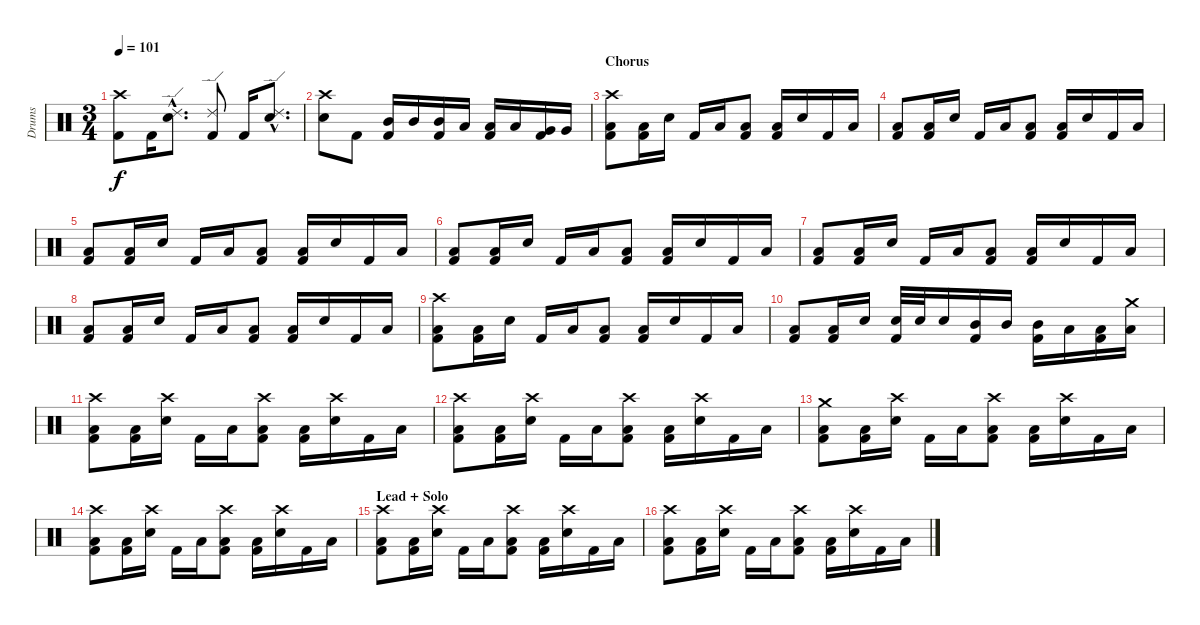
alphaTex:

\track ("Drums" "Drums") {instrument percussion}
\staff {score}
\articulation defaults
\ts (3 4)
\tempo 101
\clef neutral
\ks c
("Crash high (hit)" "Kick (hit) 2").8{dy f} "Kick (hit) 2".16 ("Electric Snare (hit)"{hac} "Ride (edge) 2"{hac}).8{d} ("Ride (edge) 2" "Kick (hit) 2").8 "Kick (hit) 2".16 ("Electric Snare (hit)"{hac} "Ride (edge) 2"{hac}).8{d} |
("Crash high (hit)" "Electric Snare (hit)").8 "Kick (hit) 2".8 ("Mid Tom (hit)" "Kick (hit) 2").16 "Mid Tom (hit)".16 ("Mid Tom (hit)" "Kick (hit) 2").16 "Low Tom (hit)".16 ("Low Tom (hit)" "Kick (hit) 2").16 "Low Tom (hit)".16 ("Very Low Tom (hit)" "Kick (hit) 2").16 "Very Low Tom (hit)".16 |
\section ("" "Chorus")
("Crash high (hit)" "Low Tom (hit)" "Kick (hit) 2").8 ("Low Tom (hit)" "Kick (hit) 2").16 "Electric Snare (hit)".16 "Kick (hit) 2".16 "Low Tom (hit)".16 ("Low Tom (hit)" "Kick (hit) 2").8 ("Low Tom (hit)" "Kick (hit) 2").16 "Electric Snare (hit)".16 "Kick (hit) 2".16 "Low Tom (hit)".16 |
("Low Tom (hit)" "Kick (hit) 2").8 ("Low Tom (hit)" "Kick (hit) 2").16 "Electric Snare (hit)".16 "Kick (hit) 2".16 "Low Tom (hit)".16 ("Low Tom (hit)" "Kick (hit) 2").8 ("Low Tom (hit)" "Kick (hit) 2").16 "Electric Snare (hit)".16 "Kick (hit) 2".16 "Low Tom (hit)".16 |
("Low Tom (hit)" "Kick (hit) 2").8 ("Low Tom (hit)" "Kick (hit) 2").16 "Electric Snare (hit)".16 "Kick (hit) 2".16 "Low Tom (hit)".16 ("Low Tom (hit)" "Kick (hit) 2").8 ("Low Tom (hit)" "Kick (hit) 2").16 "Electric Snare (hit)".16 "Kick (hit) 2".16 "Low Tom (hit)".16 |
("Low Tom (hit)" "Kick (hit) 2").8 ("Low Tom (hit)" "Kick (hit) 2").16 "Electric Snare (hit)".16 "Kick (hit) 2".16 "Low Tom (hit)".16 ("Low Tom (hit)" "Kick (hit) 2").8 ("Low Tom (hit)" "Kick (hit) 2").16 "Electric Snare (hit)".16 "Kick (hit) 2".16 "Low Tom (hit)".16 |
("Low Tom (hit)" "Kick (hit) 2").8 ("Low Tom (hit)" "Kick (hit) 2").16 "Electric Snare (hit)".16 "Kick (hit) 2".16 "Low Tom (hit)".16 ("Low Tom (hit)" "Kick (hit) 2").8 ("Low Tom (hit)" "Kick (hit) 2").16 "Electric Snare (hit)".16 "Kick (hit) 2".16 "Low Tom (hit)".16 |
("Low Tom (hit)" "Kick (hit) 2").8 ("Low Tom (hit)" "Kick (hit) 2").16 "Electric Snare (hit)".16 "Kick (hit) 2".16 "Low Tom (hit)".16 ("Low Tom (hit)" "Kick (hit) 2").8 ("Low Tom (hit)" "Kick (hit) 2").16 "Electric Snare (hit)".16 "Kick (hit) 2".16 "Low Tom (hit)".16 |
("Crash high (hit)" "Low Tom (hit)" "Kick (hit) 2").8 ("Low Tom (hit)" "Kick (hit) 2").16 "Electric Snare (hit)".16 "Kick (hit) 2".16 "Low Tom (hit)".16 ("Low Tom (hit)" "Kick (hit) 2").8 ("Low Tom (hit)" "Kick (hit) 2").16 "Electric Snare (hit)".16 "Kick (hit) 2".16 "Low Tom (hit)".16 |
("Low Tom (hit)" "Kick (hit) 2").8 ("Low Tom (hit)" "Kick (hit) 2").16 "Electric Snare (hit)".16 ("Electric Snare (hit)" "Kick (hit) 2").32 "Electric Snare (hit)".32 "Electric Snare (hit)".16 ("Mid Tom (hit)" "Kick (hit) 2").16 "Mid Tom (hit)".16 ("Mid Tom (hit)" "Kick (hit) 2").16 "Low Tom (hit)".16 ("Low Tom (hit)" "Kick (hit) 2").16 ("Crash medium (hit)" "Low Tom (hit)").16 |
("Crash high (hit)" "Low Tom (hit)" "Kick (hit) 2").8 ("Low Tom (hit)" "Kick (hit) 2").16 ("Crash high (hit)" "Electric Snare (hit)").16 "Kick (hit) 2".16 "Low Tom (hit)".16 ("Crash high (hit)" "Low Tom (hit)" "Kick (hit) 2").8 ("Low Tom (hit)" "Kick (hit) 2").16 ("Crash high (hit)" "Electric Snare (hit)").16 "Kick (hit) 2".16 "Low Tom (hit)".16 |
("Crash high (hit)" "Low Tom (hit)" "Kick (hit) 2").8 ("Low Tom (hit)" "Kick (hit) 2").16 ("Crash high (hit)" "Electric Snare (hit)").16 "Kick (hit) 2".16 "Low Tom (hit)".16 ("Crash high (hit)" "Low Tom (hit)" "Kick (hit) 2").8 ("Low Tom (hit)" "Kick (hit) 2").16 ("Crash high (hit)" "Electric Snare (hit)").16 "Kick (hit) 2".16 "Low Tom (hit)".16 |
("Crash medium (hit)" "Low Tom (hit)" "Kick (hit) 2").8 ("Low Tom (hit)" "Kick (hit) 2").16 ("Crash high (hit)" "Electric Snare (hit)").16 "Kick (hit) 2".16 "Low Tom (hit)".16 ("Crash high (hit)" "Low Tom (hit)" "Kick (hit) 2").8 ("Low Tom (hit)" "Kick (hit) 2").16 ("Crash high (hit)" "Electric Snare (hit)").16 "Kick (hit) 2".16 "Low Tom (hit)".16 |
("Crash high (hit)" "Low Tom (hit)" "Kick (hit) 2").8 ("Low Tom (hit)" "Kick (hit) 2").16 ("Crash high (hit)" "Electric Snare (hit)").16 "Kick (hit) 2".16 "Low Tom (hit)".16 ("Crash high (hit)" "Low Tom (hit)" "Kick (hit) 2").8 ("Low Tom (hit)" "Kick (hit) 2").16 ("Crash high (hit)" "Electric Snare (hit)").16 "Kick (hit) 2".16 "Low Tom (hit)".16 |
\section ("" "Lead + Solo")
("Crash high (hit)" "Low Tom (hit)" "Kick (hit) 2").8 ("Low Tom (hit)" "Kick (hit) 2").16 ("Crash high (hit)" "Electric Snare (hit)").16 "Kick (hit) 2".16 "Low Tom (hit)".16 ("Crash high (hit)" "Low Tom (hit)" "Kick (hit) 2").8 ("Low Tom (hit)" "Kick (hit) 2").16 ("Crash high (hit)" "Electric Snare (hit)").16 "Kick (hit) 2".16 "Low Tom (hit)".16 |
("Crash high (hit)" "Low Tom (hit)" "Kick (hit) 2").8 ("Low Tom (hit)" "Kick (hit) 2").16 ("Crash high (hit)" "Electric Snare (hit)").16 "Kick (hit) 2".16 "Low Tom (hit)".16 ("Crash high (hit)" "Low Tom (hit)" "Kick (hit) 2").8 ("Low Tom (hit)" "Kick (hit) 2").16 ("Crash high (hit)" "Electric Snare (hit)").16 "Kick (hit) 2".16 "Low Tom (hit)".16
